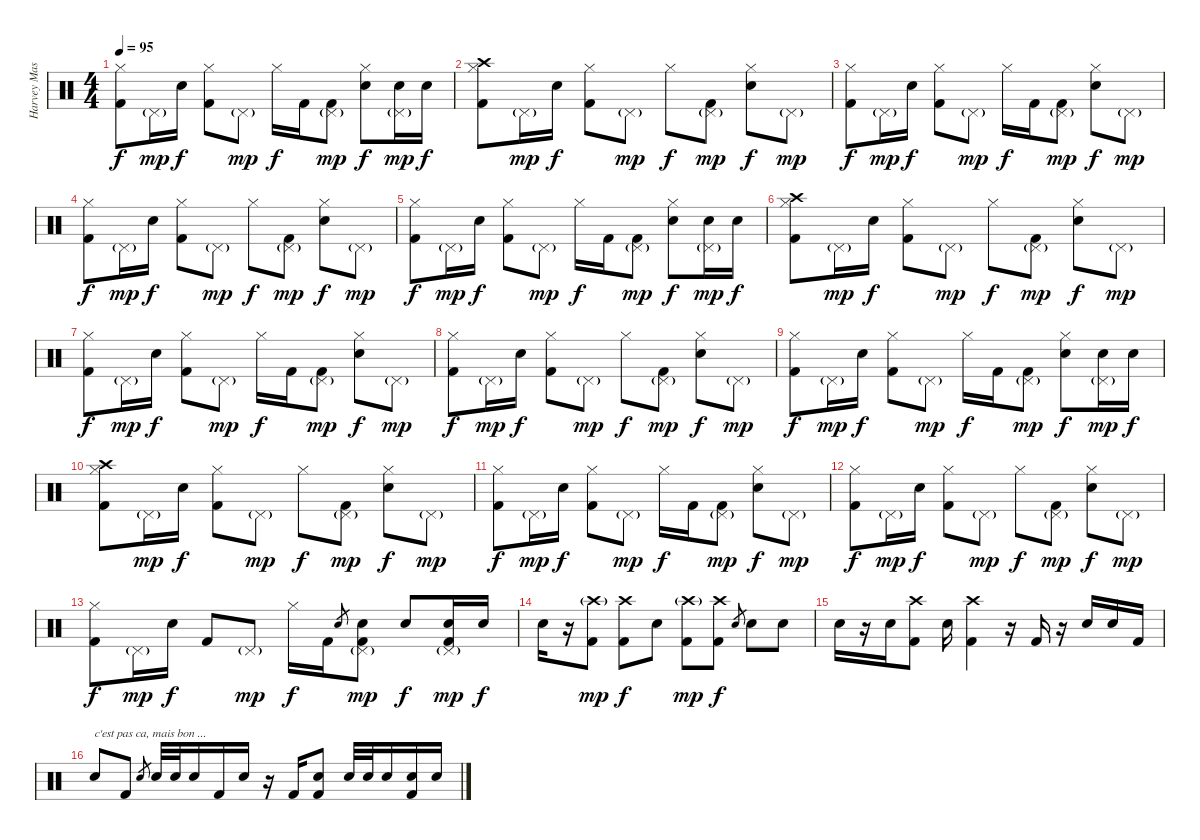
\track ("Harvey Mason (batterie)" "Harvey Mas") {instrument percussion}
\staff {score}
\articulation defaults
\ts (4 4)
\tempo 95
\clef neutral
\ks c
("Kick (hit) 2" "Hi-Hat (closed)").8{dy f} "Pedal Hi-Hat (hit)"{g}.16{dy mp} "Electric Snare (hit)".16{dy f} ("Kick (hit) 2" "Hi-Hat (closed)").8 "Pedal Hi-Hat (hit)"{g}.8{dy mp} "Hi-Hat (closed)".16{dy f} "Kick (hit) 2".16 ("Kick (hit) 2" "Pedal Hi-Hat (hit)"{g}).8{dy mp} ("Electric Snare (hit)" "Hi-Hat (closed)").8{dy f} ("Electric Snare (hit)" "Pedal Hi-Hat (hit)"{g}).16{dy mp} "Electric Snare (hit)".16{dy f} |
("Kick (hit) 2" "Hi-Hat (closed)" "Crash high (hit)").8 "Pedal Hi-Hat (hit)"{g}.16{dy mp} "Electric Snare (hit)".16{dy f} ("Kick (hit) 2" "Hi-Hat (closed)").8 "Pedal Hi-Hat (hit)"{g}.8{dy mp} "Hi-Hat (closed)".8{dy f} ("Kick (hit) 2" "Pedal Hi-Hat (hit)"{g}).8{dy mp} ("Electric Snare (hit)" "Hi-Hat (closed)").8{dy f} "Pedal Hi-Hat (hit)"{g}.8{dy mp} |
("Kick (hit) 2" "Hi-Hat (closed)").8{dy f} "Pedal Hi-Hat (hit)"{g}.16{dy mp} "Electric Snare (hit)".16{dy f} ("Kick (hit) 2" "Hi-Hat (closed)").8 "Pedal Hi-Hat (hit)"{g}.8{dy mp} "Hi-Hat (closed)".16{dy f} "Kick (hit) 2".16 ("Kick (hit) 2" "Pedal Hi-Hat (hit)"{g}).8{dy mp} ("Electric Snare (hit)" "Hi-Hat (closed)").8{dy f} "Pedal Hi-Hat (hit)"{g}.8{dy mp} |
("Kick (hit) 2" "Hi-Hat (closed)").8{dy f} "Pedal Hi-Hat (hit)"{g}.16{dy mp} "Electric Snare (hit)".16{dy f} ("Kick (hit) 2" "Hi-Hat (closed)").8 "Pedal Hi-Hat (hit)"{g}.8{dy mp} "Hi-Hat (closed)".8{dy f} ("Kick (hit) 2" "Pedal Hi-Hat (hit)"{g}).8{dy mp} ("Electric Snare (hit)" "Hi-Hat (closed)").8{dy f} "Pedal Hi-Hat (hit)"{g}.8{dy mp} |
("Kick (hit) 2" "Hi-Hat (closed)").8{dy f} "Pedal Hi-Hat (hit)"{g}.16{dy mp} "Electric Snare (hit)".16{dy f} ("Kick (hit) 2" "Hi-Hat (closed)").8 "Pedal Hi-Hat (hit)"{g}.8{dy mp} "Hi-Hat (closed)".16{dy f} "Kick (hit) 2".16 ("Kick (hit) 2" "Pedal Hi-Hat (hit)"{g}).8{dy mp} ("Electric Snare (hit)" "Hi-Hat (closed)").8{dy f} ("Electric Snare (hit)" "Pedal Hi-Hat (hit)"{g}).16{dy mp} "Electric Snare (hit)".16{dy f} |
("Kick (hit) 2" "Hi-Hat (closed)" "Crash high (hit)").8 "Pedal Hi-Hat (hit)"{g}.16{dy mp} "Electric Snare (hit)".16{dy f} ("Kick (hit) 2" "Hi-Hat (closed)").8 "Pedal Hi-Hat (hit)"{g}.8{dy mp} "Hi-Hat (closed)".8{dy f} ("Kick (hit) 2" "Pedal Hi-Hat (hit)"{g}).8{dy mp} ("Electric Snare (hit)" "Hi-Hat (closed)").8{dy f} "Pedal Hi-Hat (hit)"{g}.8{dy mp} |
("Kick (hit) 2" "Hi-Hat (closed)").8{dy f} "Pedal Hi-Hat (hit)"{g}.16{dy mp} "Electric Snare (hit)".16{dy f} ("Kick (hit) 2" "Hi-Hat (closed)").8 "Pedal Hi-Hat (hit)"{g}.8{dy mp} "Hi-Hat (closed)".16{dy f} "Kick (hit) 2".16 ("Kick (hit) 2" "Pedal Hi-Hat (hit)"{g}).8{dy mp} ("Electric Snare (hit)" "Hi-Hat (closed)").8{dy f} "Pedal Hi-Hat (hit)"{g}.8{dy mp} |
("Kick (hit) 2" "Hi-Hat (closed)").8{dy f} "Pedal Hi-Hat (hit)"{g}.16{dy mp} "Electric Snare (hit)".16{dy f} ("Kick (hit) 2" "Hi-Hat (closed)").8 "Pedal Hi-Hat (hit)"{g}.8{dy mp} "Hi-Hat (closed)".8{dy f} ("Kick (hit) 2" "Pedal Hi-Hat (hit)"{g}).8{dy mp} ("Electric Snare (hit)" "Hi-Hat (closed)").8{dy f} "Pedal Hi-Hat (hit)"{g}.8{dy mp} |
("Kick (hit) 2" "Hi-Hat (closed)").8{dy f} "Pedal Hi-Hat (hit)"{g}.16{dy mp} "Electric Snare (hit)".16{dy f} ("Kick (hit) 2" "Hi-Hat (closed)").8 "Pedal Hi-Hat (hit)"{g}.8{dy mp} "Hi-Hat (closed)".16{dy f} "Kick (hit) 2".16 ("Kick (hit) 2" "Pedal Hi-Hat (hit)"{g}).8{dy mp} ("Electric Snare (hit)" "Hi-Hat (closed)").8{dy f} ("Electric Snare (hit)" "Pedal Hi-Hat (hit)"{g}).16{dy mp} "Electric Snare (hit)".16{dy f} |
("Kick (hit) 2" "Hi-Hat (closed)" "Crash high (hit)").8 "Pedal Hi-Hat (hit)"{g}.16{dy mp} "Electric Snare (hit)".16{dy f} ("Kick (hit) 2" "Hi-Hat (closed)").8 "Pedal Hi-Hat (hit)"{g}.8{dy mp} "Hi-Hat (closed)".8{dy f} ("Kick (hit) 2" "Pedal Hi-Hat (hit)"{g}).8{dy mp} ("Electric Snare (hit)" "Hi-Hat (closed)").8{dy f} "Pedal Hi-Hat (hit)"{g}.8{dy mp} |
("Kick (hit) 2" "Hi-Hat (closed)").8{dy f} "Pedal Hi-Hat (hit)"{g}.16{dy mp} "Electric Snare (hit)".16{dy f} ("Kick (hit) 2" "Hi-Hat (closed)").8 "Pedal Hi-Hat (hit)"{g}.8{dy mp} "Hi-Hat (closed)".16{dy f} "Kick (hit) 2".16 ("Kick (hit) 2" "Pedal Hi-Hat (hit)"{g}).8{dy mp} ("Electric Snare (hit)" "Hi-Hat (closed)").8{dy f} "Pedal Hi-Hat (hit)"{g}.8{dy mp} |
("Kick (hit) 2" "Hi-Hat (closed)").8{dy f} "Pedal Hi-Hat (hit)"{g}.16{dy mp} "Electric Snare (hit)".16{dy f} ("Kick (hit) 2" "Hi-Hat (closed)").8 "Pedal Hi-Hat (hit)"{g}.8{dy mp} "Hi-Hat (closed)".8{dy f} ("Kick (hit) 2" "Pedal Hi-Hat (hit)"{g}).8{dy mp} ("Electric Snare (hit)" "Hi-Hat (closed)").8{dy f} "Pedal Hi-Hat (hit)"{g}.8{dy mp} |
("Kick (hit) 2" "Hi-Hat (closed)").8{dy f} "Pedal Hi-Hat (hit)"{g}.16{dy mp} "Electric Snare (hit)".16{dy f} "Kick (hit) 2".8 "Pedal Hi-Hat (hit)"{g}.8{dy mp} "Hi-Hat (closed)".16{dy f} "Kick (hit) 2".16 "Electric Snare (hit)".8{gr} ("Kick (hit) 2" "Pedal Hi-Hat (hit)"{g} "Electric Snare (hit)").8{dy mp} "Electric Snare (hit)".8{dy f} ("Electric Snare (hit)" "Pedal Hi-Hat (hit)"{g} "Kick (hit) 2").16{dy mp} "Electric Snare (hit)".16{dy f} |
"Electric Snare (hit)".16 r.16 ("Crash high (hit)"{g} "Kick (hit) 2").8{dy mp} ("Crash high (hit)" "Kick (hit) 2").8{dy f} "Electric Snare (hit)".8 ("Crash high (hit)"{g} "Kick (hit) 2").8{dy mp} ("Crash high (hit)" "Kick (hit) 2").8{dy f} "Electric Snare (hit)".8{gr} "Electric Snare (hit)".8 "Electric Snare (hit)".8 |
"Electric Snare (hit)".16 r.16 "Electric Snare (hit)".16 ("Crash high (hit)" "Kick (hit) 2").8 "Electric Snare (hit)".16 ("Crash high (hit)" "Kick (hit) 2").4 r.16 "Kick (hit) 2".16 r.16 "Electric Snare (hit)".16 "Electric Snare (hit)".16 "Kick (hit) 2".16 |
"Electric Snare (hit)".8{txt "c'est pas ca, mais bon ..."} "Kick (hit) 2".8 "Electric Snare (hit)".8{gr} "Electric Snare (hit)".32 "Electric Snare (hit)".32 "Electric Snare (hit)".16 "Kick (hit) 2".16 "Electric Snare (hit)".16 r.16 "Kick (hit) 2".16 ("Electric Snare (hit)" "Kick (hit) 2").8 "Electric Snare (hit)".32 "Electric Snare (hit)".32 "Electric Snare (hit)".16 ("Electric Snare (hit)" "Kick (hit) 2").16 "Electric Snare (hit)".16
